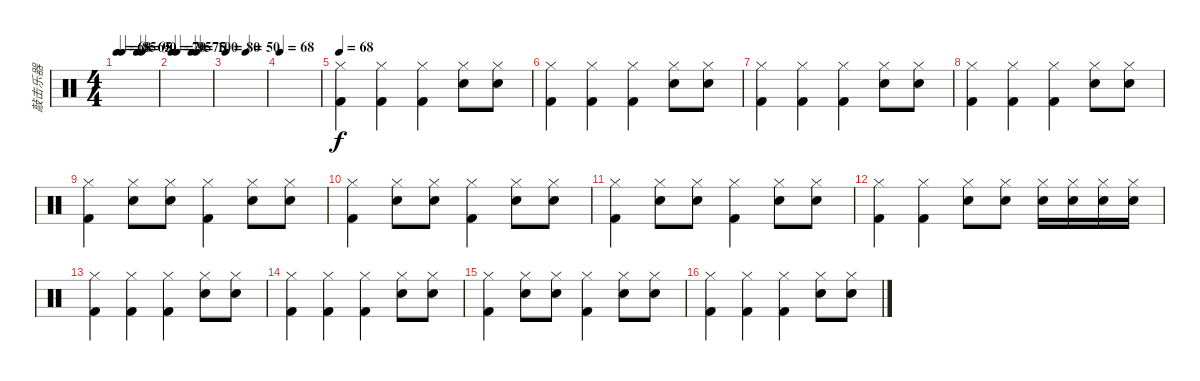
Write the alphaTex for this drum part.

\track ("敲击乐器" "敲击乐器") {instrument percussion}
\staff {score}
\articulation defaults
\ts (4 4)
\tempo 68
\tempo 60
\tempo (85 0.125)
\tempo (65 0.5)
\tempo (90 0.625)
\tempo 68
\clef neutral
\ks c
|
\tempo 70
\tempo (95 0.125)
\tempo (75 0.5)
\tempo (100 0.625)
|
\tempo 80
\tempo (50 0.5)
|
\tempo 68
|
\tempo 68
("Kick (hit) 2" "Hi-Hat (closed)").4 ("Kick (hit) 2" "Hi-Hat (closed)").4 ("Kick (hit) 2" "Hi-Hat (closed)").4 ("Snare (hit) 2" "Hi-Hat (closed)").8 ("Snare (hit) 2" "Hi-Hat (closed)").8 |
("Kick (hit) 2" "Hi-Hat (closed)").4 ("Kick (hit) 2" "Hi-Hat (closed)").4 ("Kick (hit) 2" "Hi-Hat (closed)").4 ("Snare (hit) 2" "Hi-Hat (closed)").8 ("Snare (hit) 2" "Hi-Hat (closed)").8 |
("Kick (hit) 2" "Hi-Hat (closed)").4 ("Kick (hit) 2" "Hi-Hat (closed)").4 ("Kick (hit) 2" "Hi-Hat (closed)").4 ("Snare (hit) 2" "Hi-Hat (closed)").8 ("Snare (hit) 2" "Hi-Hat (closed)").8 |
("Kick (hit) 2" "Hi-Hat (closed)").4 ("Kick (hit) 2" "Hi-Hat (closed)").4 ("Kick (hit) 2" "Hi-Hat (closed)").4 ("Snare (hit) 2" "Hi-Hat (closed)").8 ("Snare (hit) 2" "Hi-Hat (closed)").8 |
("Kick (hit) 2" "Hi-Hat (closed)").4 ("Snare (hit) 2" "Hi-Hat (closed)").8 ("Snare (hit) 2" "Hi-Hat (closed)").8 ("Kick (hit) 2" "Hi-Hat (closed)").4 ("Snare (hit) 2" "Hi-Hat (closed)").8 ("Snare (hit) 2" "Hi-Hat (closed)").8 |
("Kick (hit) 2" "Hi-Hat (closed)").4 ("Snare (hit) 2" "Hi-Hat (closed)").8 ("Snare (hit) 2" "Hi-Hat (closed)").8 ("Kick (hit) 2" "Hi-Hat (closed)").4 ("Snare (hit) 2" "Hi-Hat (closed)").8 ("Snare (hit) 2" "Hi-Hat (closed)").8 |
("Kick (hit) 2" "Hi-Hat (closed)").4 ("Snare (hit) 2" "Hi-Hat (closed)").8 ("Snare (hit) 2" "Hi-Hat (closed)").8 ("Kick (hit) 2" "Hi-Hat (closed)").4 ("Snare (hit) 2" "Hi-Hat (closed)").8 ("Snare (hit) 2" "Hi-Hat (closed)").8 |
("Kick (hit) 2" "Hi-Hat (closed)").4 ("Kick (hit) 2" "Hi-Hat (closed)").4 ("Snare (hit) 2" "Hi-Hat (closed)").8 ("Snare (hit) 2" "Hi-Hat (closed)").8 ("Snare (hit) 2" "Hi-Hat (closed)").16 ("Snare (hit) 2" "Hi-Hat (closed)").16 ("Snare (hit) 2" "Hi-Hat (closed)").16 ("Snare (hit) 2" "Hi-Hat (closed)").16 |
("Kick (hit) 2" "Hi-Hat (closed)").4 ("Kick (hit) 2" "Hi-Hat (closed)").4 ("Kick (hit) 2" "Hi-Hat (closed)").4 ("Snare (hit) 2" "Hi-Hat (closed)").8 ("Snare (hit) 2" "Hi-Hat (closed)").8 |
("Kick (hit) 2" "Hi-Hat (closed)").4 ("Kick (hit) 2" "Hi-Hat (closed)").4 ("Kick (hit) 2" "Hi-Hat (closed)").4 ("Snare (hit) 2" "Hi-Hat (closed)").8 ("Snare (hit) 2" "Hi-Hat (closed)").8 |
("Kick (hit) 2" "Hi-Hat (closed)").4 ("Snare (hit) 2" "Hi-Hat (closed)").8 ("Snare (hit) 2" "Hi-Hat (closed)").8 ("Kick (hit) 2" "Hi-Hat (closed)").4 ("Snare (hit) 2" "Hi-Hat (closed)").8 ("Snare (hit) 2" "Hi-Hat (closed)").8 |
("Kick (hit) 2" "Hi-Hat (closed)").4 ("Kick (hit) 2" "Hi-Hat (closed)").4 ("Kick (hit) 2" "Hi-Hat (closed)").4 ("Snare (hit) 2" "Hi-Hat (closed)").8 ("Snare (hit) 2" "Hi-Hat (closed)").8
